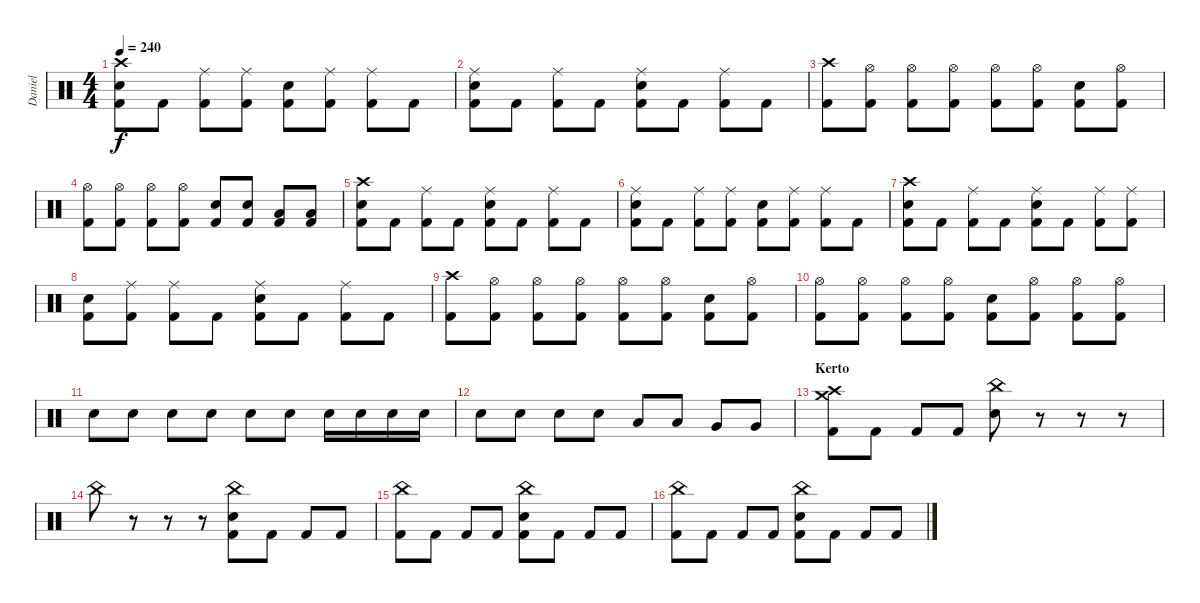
\track ("Daniel" "Daniel") {instrument percussion}
\staff {score}
\articulation defaults
\ts (4 4)
\tempo 240
\clef neutral
\ks c
("Crash high (hit)" "Electric Snare (hit)" "Kick (hit) 2").8{dy f} "Kick (hit) 2".8 ("Ride (middle)" "Kick (hit) 2").8 ("Ride (middle)" "Kick (hit) 2").8 ("Electric Snare (hit)" "Kick (hit) 2").8 ("Ride (middle)" "Kick (hit) 2").8 ("Ride (middle)" "Kick (hit) 2").8 "Kick (hit) 2".8 |
("Ride (middle)" "Electric Snare (hit)" "Kick (hit) 2").8 "Kick (hit) 2".8 ("Ride (middle)" "Kick (hit) 2").8 "Kick (hit) 2".8 ("Ride (middle)" "Electric Snare (hit)" "Kick (hit) 2").8 "Kick (hit) 2".8 ("Ride (middle)" "Kick (hit) 2").8 "Kick (hit) 2".8 |
("Crash high (hit)" "Kick (hit) 2").8 ("Hi-Hat (open)" "Kick (hit) 2").8 ("Hi-Hat (open)" "Kick (hit) 2").8 ("Hi-Hat (open)" "Kick (hit) 2").8 ("Hi-Hat (open)" "Kick (hit) 2").8 ("Hi-Hat (open)" "Kick (hit) 2").8 ("Electric Snare (hit)" "Kick (hit) 2").8 ("Hi-Hat (open)" "Kick (hit) 2").8 |
("Hi-Hat (open)" "Kick (hit) 2").8 ("Hi-Hat (open)" "Kick (hit) 2").8 ("Hi-Hat (open)" "Kick (hit) 2").8 ("Hi-Hat (open)" "Kick (hit) 2").8 ("Electric Snare (hit)" "Kick (hit) 2").8 ("Electric Snare (hit)" "Kick (hit) 2").8 ("Low Tom (hit)" "Kick (hit) 2").8 ("Low Tom (hit)" "Kick (hit) 2").8 |
("Crash high (hit)" "Electric Snare (hit)" "Kick (hit) 2").8 "Kick (hit) 2".8 ("Ride (middle)" "Kick (hit) 2").8 "Kick (hit) 2".8 ("Ride (middle)" "Electric Snare (hit)" "Kick (hit) 2").8 "Kick (hit) 2".8 ("Ride (middle)" "Kick (hit) 2").8 "Kick (hit) 2".8 |
("Ride (middle)" "Electric Snare (hit)" "Kick (hit) 2").8 "Kick (hit) 2".8 ("Ride (middle)" "Kick (hit) 2").8 ("Ride (middle)" "Kick (hit) 2").8 ("Electric Snare (hit)" "Kick (hit) 2").8 ("Ride (middle)" "Kick (hit) 2").8 ("Ride (middle)" "Kick (hit) 2").8 "Kick (hit) 2".8 |
("Crash high (hit)" "Electric Snare (hit)" "Kick (hit) 2").8 "Kick (hit) 2".8 ("Ride (middle)" "Kick (hit) 2").8 "Kick (hit) 2".8 ("Ride (middle)" "Electric Snare (hit)" "Kick (hit) 2").8 "Kick (hit) 2".8 ("Ride (middle)" "Kick (hit) 2").8 ("Ride (middle)" "Kick (hit) 2").8 |
("Electric Snare (hit)" "Kick (hit) 2").8 ("Ride (middle)" "Kick (hit) 2").8 ("Ride (middle)" "Kick (hit) 2").8 "Kick (hit) 2".8 ("Ride (middle)" "Electric Snare (hit)" "Kick (hit) 2").8 "Kick (hit) 2".8 ("Ride (middle)" "Kick (hit) 2").8 "Kick (hit) 2".8 |
("Crash high (hit)" "Kick (hit) 2").8 ("Hi-Hat (open)" "Kick (hit) 2").8 ("Hi-Hat (open)" "Kick (hit) 2").8 ("Hi-Hat (open)" "Kick (hit) 2").8 ("Hi-Hat (open)" "Kick (hit) 2").8 ("Hi-Hat (open)" "Kick (hit) 2").8 ("Electric Snare (hit)" "Kick (hit) 2").8 ("Hi-Hat (open)" "Kick (hit) 2").8 |
("Hi-Hat (open)" "Kick (hit) 2").8 ("Hi-Hat (open)" "Kick (hit) 2").8 ("Hi-Hat (open)" "Kick (hit) 2").8 ("Hi-Hat (open)" "Kick (hit) 2").8 ("Electric Snare (hit)" "Kick (hit) 2").8 ("Hi-Hat (open)" "Kick (hit) 2").8 ("Hi-Hat (open)" "Kick (hit) 2").8 ("Hi-Hat (open)" "Kick (hit) 2").8 |
"Electric Snare (hit)".8 "Electric Snare (hit)".8 "Electric Snare (hit)".8 "Electric Snare (hit)".8 "Electric Snare (hit)".8 "Electric Snare (hit)".8 "Electric Snare (hit)".16 "Electric Snare (hit)".16 "Electric Snare (hit)".16 "Electric Snare (hit)".16 |
"Electric Snare (hit)".8 "Electric Snare (hit)".8 "Electric Snare (hit)".8 "Electric Snare (hit)".8 "Low Tom (hit)".8 "Low Tom (hit)".8 "Very Low Tom (hit)".8 "Very Low Tom (hit)".8 |
\section ("" "Kerto")
("Crash medium (hit)" "Crash high (hit)" "Kick (hit) 2").8 "Kick (hit) 2".8 "Kick (hit) 2".8 "Kick (hit) 2".8 ("China (hit)" "Electric Snare (hit)").8 r.8 r.8 r.8 |
"China (hit)".8 r.8 r.8 r.8 ("China (hit)" "Electric Snare (hit)" "Kick (hit) 2").8 "Kick (hit) 2".8 "Kick (hit) 2".8 "Kick (hit) 2".8 |
("China (hit)" "Kick (hit) 2").8 "Kick (hit) 2".8 "Kick (hit) 2".8 "Kick (hit) 2".8 ("China (hit)" "Electric Snare (hit)" "Kick (hit) 2").8 "Kick (hit) 2".8 "Kick (hit) 2".8 "Kick (hit) 2".8 |
("China (hit)" "Kick (hit) 2").8 "Kick (hit) 2".8 "Kick (hit) 2".8 "Kick (hit) 2".8 ("China (hit)" "Electric Snare (hit)" "Kick (hit) 2").8 "Kick (hit) 2".8 "Kick (hit) 2".8 "Kick (hit) 2".8
